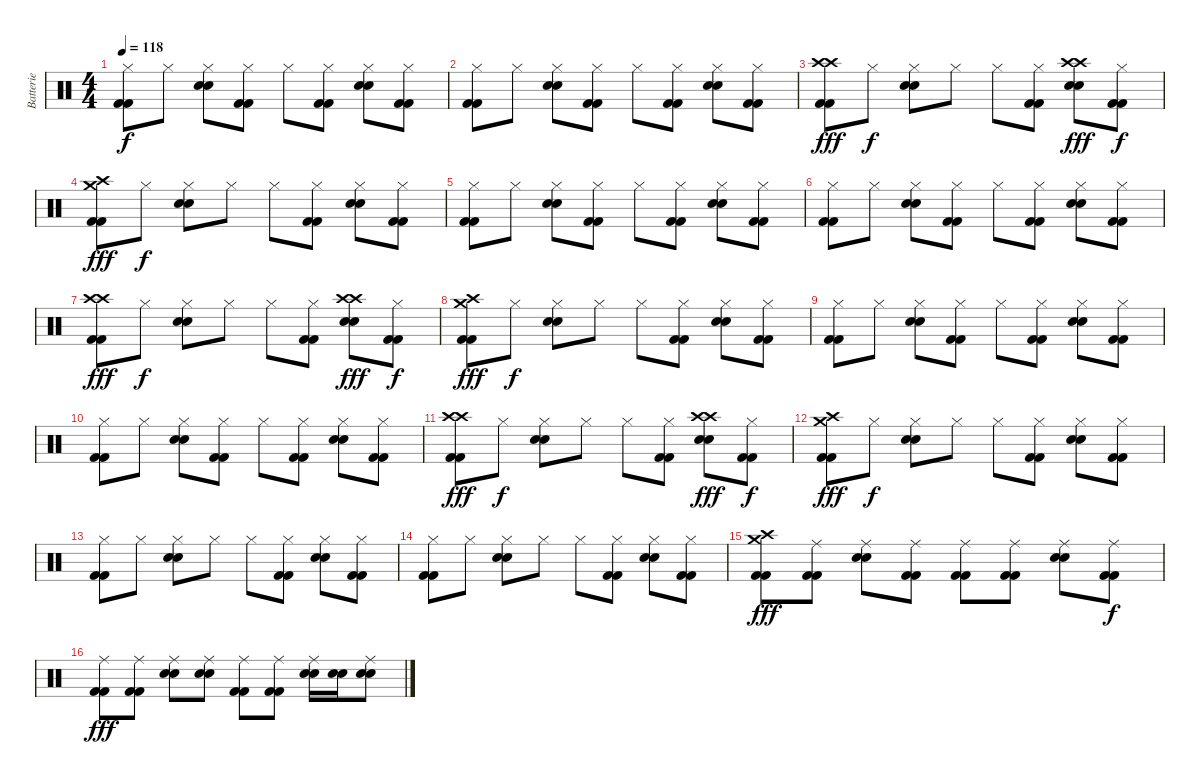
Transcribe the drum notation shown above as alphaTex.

\track ("Batterie" "Batterie") {instrument percussion}
\staff {score}
\articulation defaults
\ts (4 4)
\tempo 118
\clef neutral
\ks c
("Hi-Hat (closed)" "Kick (hit) 2" "Kick (hit) 2").8{dy f} "Hi-Hat (closed)".8 ("Hi-Hat (closed)" "Snare (hit) 2" "Snare (hit) 2").8 ("Hi-Hat (closed)" "Kick (hit) 2" "Kick (hit) 2").8 "Hi-Hat (closed)".8 ("Hi-Hat (closed)" "Kick (hit) 2" "Kick (hit) 2").8 ("Hi-Hat (closed)" "Snare (hit) 2" "Snare (hit) 2").8 ("Hi-Hat (closed)" "Kick (hit) 2" "Kick (hit) 2").8 |
("Hi-Hat (closed)" "Kick (hit) 2" "Kick (hit) 2").8 "Hi-Hat (closed)".8 ("Hi-Hat (closed)" "Snare (hit) 2" "Snare (hit) 2").8 ("Hi-Hat (closed)" "Kick (hit) 2" "Kick (hit) 2").8 "Hi-Hat (closed)".8 ("Hi-Hat (closed)" "Kick (hit) 2" "Kick (hit) 2").8 ("Hi-Hat (closed)" "Snare (hit) 2" "Snare (hit) 2").8 ("Hi-Hat (closed)" "Kick (hit) 2" "Kick (hit) 2").8 |
("Crash high (hit)" "Crash high (hit)" "Kick (hit) 2" "Kick (hit) 2").8{dy fff} "Hi-Hat (closed)".8{dy f} ("Hi-Hat (closed)" "Snare (hit) 2" "Snare (hit) 2").8 "Hi-Hat (closed)".8 "Hi-Hat (closed)".8 ("Hi-Hat (closed)" "Kick (hit) 2" "Kick (hit) 2").8 ("Crash high (hit)" "Crash high (hit)" "Snare (hit) 2" "Snare (hit) 2").8{dy fff} ("Hi-Hat (closed)" "Kick (hit) 2" "Kick (hit) 2").8{dy f} |
("Crash medium (hit)" "Crash high (hit)" "Kick (hit) 2" "Kick (hit) 2").8{dy fff} "Hi-Hat (closed)".8{dy f} ("Hi-Hat (closed)" "Snare (hit) 2" "Snare (hit) 2").8 "Hi-Hat (closed)".8 "Hi-Hat (closed)".8 ("Hi-Hat (closed)" "Kick (hit) 2" "Kick (hit) 2").8 ("Hi-Hat (closed)" "Snare (hit) 2" "Snare (hit) 2").8 ("Hi-Hat (closed)" "Kick (hit) 2" "Kick (hit) 2").8 |
("Hi-Hat (closed)" "Kick (hit) 2" "Kick (hit) 2").8 "Hi-Hat (closed)".8 ("Hi-Hat (closed)" "Snare (hit) 2" "Snare (hit) 2").8 ("Hi-Hat (closed)" "Kick (hit) 2" "Kick (hit) 2").8 "Hi-Hat (closed)".8 ("Hi-Hat (closed)" "Kick (hit) 2" "Kick (hit) 2").8 ("Hi-Hat (closed)" "Snare (hit) 2" "Snare (hit) 2").8 ("Hi-Hat (closed)" "Kick (hit) 2" "Kick (hit) 2").8 |
("Hi-Hat (closed)" "Kick (hit) 2" "Kick (hit) 2").8 "Hi-Hat (closed)".8 ("Hi-Hat (closed)" "Snare (hit) 2" "Snare (hit) 2").8 ("Hi-Hat (closed)" "Kick (hit) 2" "Kick (hit) 2").8 "Hi-Hat (closed)".8 ("Hi-Hat (closed)" "Kick (hit) 2" "Kick (hit) 2").8 ("Hi-Hat (closed)" "Snare (hit) 2" "Snare (hit) 2").8 ("Hi-Hat (closed)" "Kick (hit) 2" "Kick (hit) 2").8 |
("Crash high (hit)" "Crash high (hit)" "Kick (hit) 2" "Kick (hit) 2").8{dy fff} "Hi-Hat (closed)".8{dy f} ("Hi-Hat (closed)" "Snare (hit) 2" "Snare (hit) 2").8 "Hi-Hat (closed)".8 "Hi-Hat (closed)".8 ("Hi-Hat (closed)" "Kick (hit) 2" "Kick (hit) 2").8 ("Crash high (hit)" "Crash high (hit)" "Snare (hit) 2" "Snare (hit) 2").8{dy fff} ("Hi-Hat (closed)" "Kick (hit) 2" "Kick (hit) 2").8{dy f} |
("Crash medium (hit)" "Crash high (hit)" "Kick (hit) 2" "Kick (hit) 2").8{dy fff} "Hi-Hat (closed)".8{dy f} ("Hi-Hat (closed)" "Snare (hit) 2" "Snare (hit) 2").8 "Hi-Hat (closed)".8 "Hi-Hat (closed)".8 ("Hi-Hat (closed)" "Kick (hit) 2" "Kick (hit) 2").8 ("Hi-Hat (closed)" "Snare (hit) 2" "Snare (hit) 2").8 ("Hi-Hat (closed)" "Kick (hit) 2" "Kick (hit) 2").8 |
("Hi-Hat (closed)" "Kick (hit) 2" "Kick (hit) 2").8 "Hi-Hat (closed)".8 ("Hi-Hat (closed)" "Snare (hit) 2" "Snare (hit) 2").8 ("Hi-Hat (closed)" "Kick (hit) 2" "Kick (hit) 2").8 "Hi-Hat (closed)".8 ("Hi-Hat (closed)" "Kick (hit) 2" "Kick (hit) 2").8 ("Hi-Hat (closed)" "Snare (hit) 2" "Snare (hit) 2").8 ("Hi-Hat (closed)" "Kick (hit) 2" "Kick (hit) 2").8 |
("Hi-Hat (closed)" "Kick (hit) 2" "Kick (hit) 2").8 "Hi-Hat (closed)".8 ("Hi-Hat (closed)" "Snare (hit) 2" "Snare (hit) 2").8 ("Hi-Hat (closed)" "Kick (hit) 2" "Kick (hit) 2").8 "Hi-Hat (closed)".8 ("Hi-Hat (closed)" "Kick (hit) 2" "Kick (hit) 2").8 ("Hi-Hat (closed)" "Snare (hit) 2" "Snare (hit) 2").8 ("Hi-Hat (closed)" "Kick (hit) 2" "Kick (hit) 2").8 |
("Crash high (hit)" "Crash high (hit)" "Kick (hit) 2" "Kick (hit) 2").8{dy fff} "Hi-Hat (closed)".8{dy f} ("Hi-Hat (closed)" "Snare (hit) 2" "Snare (hit) 2").8 "Hi-Hat (closed)".8 "Hi-Hat (closed)".8 ("Hi-Hat (closed)" "Kick (hit) 2" "Kick (hit) 2").8 ("Crash high (hit)" "Crash high (hit)" "Snare (hit) 2" "Snare (hit) 2").8{dy fff} ("Hi-Hat (closed)" "Kick (hit) 2" "Kick (hit) 2").8{dy f} |
("Crash medium (hit)" "Crash high (hit)" "Kick (hit) 2" "Kick (hit) 2").8{dy fff} "Hi-Hat (closed)".8{dy f} ("Hi-Hat (closed)" "Snare (hit) 2" "Snare (hit) 2").8 "Hi-Hat (closed)".8 "Hi-Hat (closed)".8 ("Hi-Hat (closed)" "Kick (hit) 2" "Kick (hit) 2").8 ("Hi-Hat (closed)" "Snare (hit) 2" "Snare (hit) 2").8 ("Hi-Hat (closed)" "Kick (hit) 2" "Kick (hit) 2").8 |
("Hi-Hat (closed)" "Kick (hit) 2" "Kick (hit) 2").8 "Hi-Hat (closed)".8 ("Hi-Hat (closed)" "Snare (hit) 2" "Snare (hit) 2").8 "Hi-Hat (closed)".8 "Hi-Hat (closed)".8 ("Hi-Hat (closed)" "Kick (hit) 2" "Kick (hit) 2").8 ("Hi-Hat (closed)" "Snare (hit) 2" "Snare (hit) 2").8 ("Hi-Hat (closed)" "Kick (hit) 2" "Kick (hit) 2").8 |
("Hi-Hat (closed)" "Kick (hit) 2" "Kick (hit) 2").8 "Hi-Hat (closed)".8 ("Hi-Hat (closed)" "Snare (hit) 2" "Snare (hit) 2").8 "Hi-Hat (closed)".8 "Hi-Hat (closed)".8 ("Hi-Hat (closed)" "Kick (hit) 2" "Kick (hit) 2").8 ("Hi-Hat (closed)" "Snare (hit) 2" "Snare (hit) 2").8 ("Hi-Hat (closed)" "Kick (hit) 2" "Kick (hit) 2").8 |
("Crash high (hit)" "Crash medium (hit)" "Kick (hit) 2" "Kick (hit) 2").8{dy fff} ("Ride (middle)" "Kick (hit) 2" "Kick (hit) 2").8 ("Ride (middle)" "Snare (hit) 2" "Snare (hit) 2").8 ("Ride (middle)" "Kick (hit) 2" "Kick (hit) 2").8 ("Ride (middle)" "Kick (hit) 2" "Kick (hit) 2").8 ("Ride (middle)" "Kick (hit) 2" "Kick (hit) 2").8 ("Ride (middle)" "Snare (hit) 2" "Snare (hit) 2").8 ("Ride (middle)" "Kick (hit) 2" "Kick (hit) 2").8{dy f} |
("Ride (middle)" "Kick (hit) 2" "Kick (hit) 2").8{dy fff} ("Ride (middle)" "Kick (hit) 2" "Kick (hit) 2").8 ("Ride (middle)" "Snare (hit) 2" "Snare (hit) 2").8 ("Ride (middle)" "Snare (hit) 2" "Snare (hit) 2").8 ("Ride (middle)" "Kick (hit) 2" "Kick (hit) 2").8 ("Ride (middle)" "Kick (hit) 2" "Kick (hit) 2").8 ("Ride (middle)" "Snare (hit) 2" "Snare (hit) 2").16 ("Snare (hit) 2" "Snare (hit) 2").16 ("Ride (middle)" "Snare (hit) 2" "Snare (hit) 2").8
